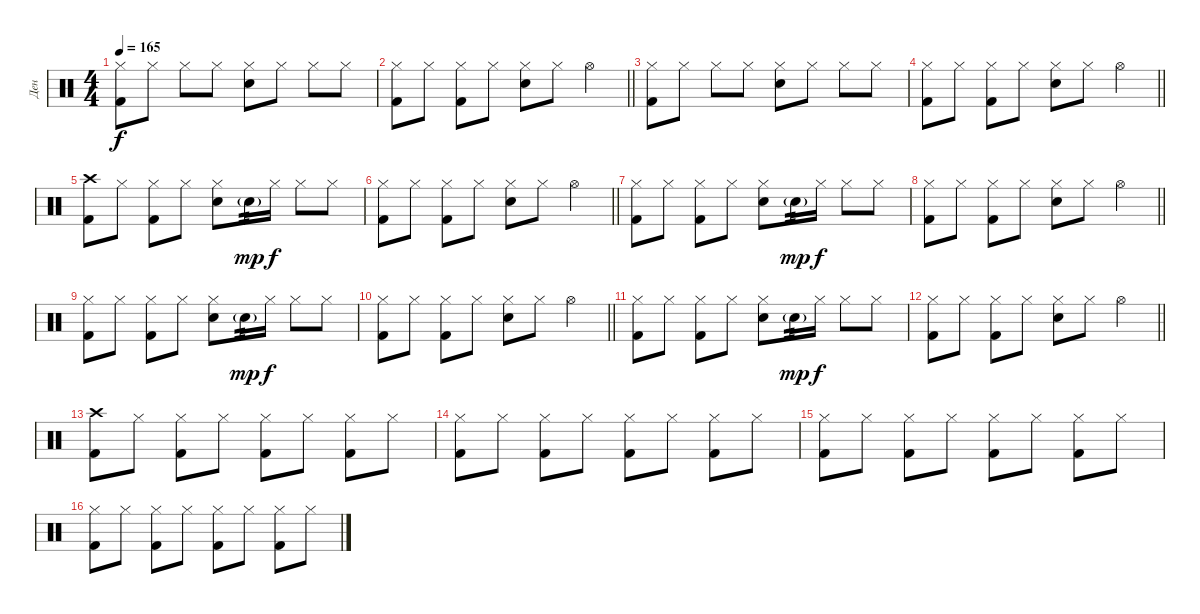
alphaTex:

\track ("Ден" "Ден") {instrument percussion}
\staff {score}
\articulation defaults
\ts (4 4)
\tempo 165
\clef neutral
\ks c
("Hi-Hat (closed)" "Kick (hit) 2").8{dy f} "Hi-Hat (closed)".8 "Hi-Hat (closed)".8 "Hi-Hat (closed)".8 ("Hi-Hat (closed)" "Snare (hit) 2").8 "Hi-Hat (closed)".8 "Hi-Hat (closed)".8 "Hi-Hat (closed)".8 |
\barLineRight lightlight
("Hi-Hat (closed)" "Kick (hit) 2").8 "Hi-Hat (closed)".8 ("Hi-Hat (closed)" "Kick (hit) 2").8 "Hi-Hat (closed)".8 ("Hi-Hat (closed)" "Snare (hit) 2").8 "Hi-Hat (closed)".8 "Hi-Hat (open)".4 |
("Hi-Hat (closed)" "Kick (hit) 2").8 "Hi-Hat (closed)".8 "Hi-Hat (closed)".8 "Hi-Hat (closed)".8 ("Hi-Hat (closed)" "Snare (hit) 2").8 "Hi-Hat (closed)".8 "Hi-Hat (closed)".8 "Hi-Hat (closed)".8 |
\barLineRight lightlight
("Hi-Hat (closed)" "Kick (hit) 2").8 "Hi-Hat (closed)".8 ("Hi-Hat (closed)" "Kick (hit) 2").8 "Hi-Hat (closed)".8 ("Hi-Hat (closed)" "Snare (hit) 2").8 "Hi-Hat (closed)".8 "Hi-Hat (open)".4 |
("Crash high (hit)" "Kick (hit) 2").8 "Hi-Hat (closed)".8 ("Hi-Hat (closed)" "Kick (hit) 2").8 "Hi-Hat (closed)".8 ("Hi-Hat (closed)" "Snare (hit) 2").8 "Snare (hit) 2"{g}.16{tp 2 dy mp} "Hi-Hat (closed)".16{dy f} "Hi-Hat (closed)".8 "Hi-Hat (closed)".8 |
\barLineRight lightlight
("Hi-Hat (closed)" "Kick (hit) 2").8 "Hi-Hat (closed)".8 ("Hi-Hat (closed)" "Kick (hit) 2").8 "Hi-Hat (closed)".8 ("Hi-Hat (closed)" "Snare (hit) 2").8 "Hi-Hat (closed)".8 "Hi-Hat (open)".4 |
("Hi-Hat (closed)" "Kick (hit) 2").8 "Hi-Hat (closed)".8 ("Hi-Hat (closed)" "Kick (hit) 2").8 "Hi-Hat (closed)".8 ("Hi-Hat (closed)" "Snare (hit) 2").8 "Snare (hit) 2"{g}.16{tp 2 dy mp} "Hi-Hat (closed)".16{dy f} "Hi-Hat (closed)".8 "Hi-Hat (closed)".8 |
\barLineRight lightlight
("Hi-Hat (closed)" "Kick (hit) 2").8 "Hi-Hat (closed)".8 ("Hi-Hat (closed)" "Kick (hit) 2").8 "Hi-Hat (closed)".8 ("Hi-Hat (closed)" "Snare (hit) 2").8 "Hi-Hat (closed)".8 "Hi-Hat (open)".4 |
("Hi-Hat (closed)" "Kick (hit) 2").8 "Hi-Hat (closed)".8 ("Hi-Hat (closed)" "Kick (hit) 2").8 "Hi-Hat (closed)".8 ("Hi-Hat (closed)" "Snare (hit) 2").8 "Snare (hit) 2"{g}.16{tp 2 dy mp} "Hi-Hat (closed)".16{dy f} "Hi-Hat (closed)".8 "Hi-Hat (closed)".8 |
\barLineRight lightlight
("Hi-Hat (closed)" "Kick (hit) 2").8 "Hi-Hat (closed)".8 ("Hi-Hat (closed)" "Kick (hit) 2").8 "Hi-Hat (closed)".8 ("Hi-Hat (closed)" "Snare (hit) 2").8 "Hi-Hat (closed)".8 "Hi-Hat (open)".4 |
("Hi-Hat (closed)" "Kick (hit) 2").8 "Hi-Hat (closed)".8 ("Hi-Hat (closed)" "Kick (hit) 2").8 "Hi-Hat (closed)".8 ("Hi-Hat (closed)" "Snare (hit) 2").8 "Snare (hit) 2"{g}.16{tp 2 dy mp} "Hi-Hat (closed)".16{dy f} "Hi-Hat (closed)".8 "Hi-Hat (closed)".8 |
\barLineRight lightlight
("Hi-Hat (closed)" "Kick (hit) 2").8 "Hi-Hat (closed)".8 ("Hi-Hat (closed)" "Kick (hit) 2").8 "Hi-Hat (closed)".8 ("Hi-Hat (closed)" "Snare (hit) 2").8 "Hi-Hat (closed)".8 "Hi-Hat (open)".4 |
("Crash high (hit)" "Kick (hit) 2").8 "Hi-Hat (closed)".8 ("Hi-Hat (closed)" "Kick (hit) 2").8 "Hi-Hat (closed)".8 ("Hi-Hat (closed)" "Kick (hit) 2").8 "Hi-Hat (closed)".8 ("Hi-Hat (closed)" "Kick (hit) 2").8 "Hi-Hat (closed)".8 |
("Hi-Hat (closed)" "Kick (hit) 2").8 "Hi-Hat (closed)".8 ("Hi-Hat (closed)" "Kick (hit) 2").8 "Hi-Hat (closed)".8 ("Hi-Hat (closed)" "Kick (hit) 2").8 "Hi-Hat (closed)".8 ("Hi-Hat (closed)" "Kick (hit) 2").8 "Hi-Hat (closed)".8 |
("Hi-Hat (closed)" "Kick (hit) 2").8 "Hi-Hat (closed)".8 ("Hi-Hat (closed)" "Kick (hit) 2").8 "Hi-Hat (closed)".8 ("Hi-Hat (closed)" "Kick (hit) 2").8 "Hi-Hat (closed)".8 ("Hi-Hat (closed)" "Kick (hit) 2").8 "Hi-Hat (closed)".8 |
("Hi-Hat (closed)" "Kick (hit) 2").8 "Hi-Hat (closed)".8 ("Hi-Hat (closed)" "Kick (hit) 2").8 "Hi-Hat (closed)".8 ("Hi-Hat (closed)" "Kick (hit) 2").8 "Hi-Hat (closed)".8 ("Hi-Hat (closed)" "Kick (hit) 2").8 "Hi-Hat (closed)".8
